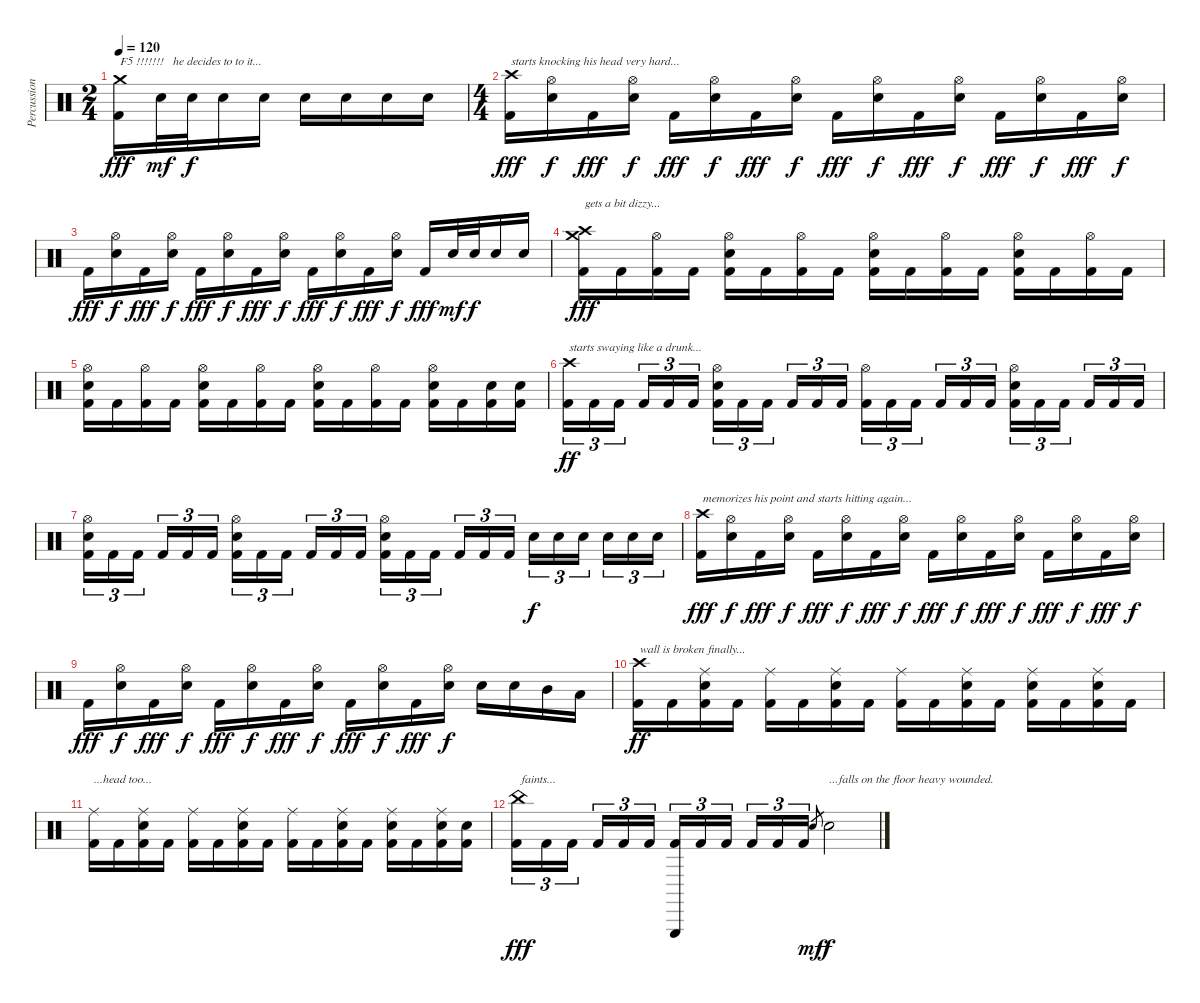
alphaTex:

\track ("Percussion" "Percussion") {instrument percussion}
\staff {score}
\articulation defaults
\ts (2 4)
\tempo 120
\clef neutral
\ks c
("Crash medium (hit)" "Kick (hit) 2").16{txt "F5 !!!!!!!   he decides to to it..." dy fff} "Electric Snare (hit)".32{dy mf} "Electric Snare (hit)".32{dy f} "Electric Snare (hit)".16 "Electric Snare (hit)".16 "Electric Snare (hit)".16 "Electric Snare (hit)".16 "Electric Snare (hit)".16 "Electric Snare (hit)".16 |
\ts (4 4)
("Crash high (hit)" "Kick (hit) 2").16{txt "starts knocking his head very hard..." dy fff} ("Hi-Hat (open)" "Electric Snare (hit)").16{dy f} "Kick (hit) 2".16{dy fff} ("Hi-Hat (open)" "Electric Snare (hit)").16{dy f} "Kick (hit) 2".16{dy fff} ("Hi-Hat (open)" "Electric Snare (hit)").16{dy f} "Kick (hit) 2".16{dy fff} ("Hi-Hat (open)" "Electric Snare (hit)").16{dy f} "Kick (hit) 2".16{dy fff} ("Hi-Hat (open)" "Electric Snare (hit)").16{dy f} "Kick (hit) 2".16{dy fff} ("Hi-Hat (open)" "Electric Snare (hit)").16{dy f} "Kick (hit) 2".16{dy fff} ("Hi-Hat (open)" "Electric Snare (hit)").16{dy f} "Kick (hit) 2".16{dy fff} ("Hi-Hat (open)" "Electric Snare (hit)").16{dy f} |
"Kick (hit) 2".16{dy fff} ("Hi-Hat (open)" "Electric Snare (hit)").16{dy f} "Kick (hit) 2".16{dy fff} ("Hi-Hat (open)" "Electric Snare (hit)").16{dy f} "Kick (hit) 2".16{dy fff} ("Hi-Hat (open)" "Electric Snare (hit)").16{dy f} "Kick (hit) 2".16{dy fff} ("Hi-Hat (open)" "Electric Snare (hit)").16{dy f} "Kick (hit) 2".16{dy fff} ("Hi-Hat (open)" "Electric Snare (hit)").16{dy f} "Kick (hit) 2".16{dy fff} ("Hi-Hat (open)" "Electric Snare (hit)").16{dy f} "Kick (hit) 2".16{dy fff} "Electric Snare (hit)".32{dy mf} "Electric Snare (hit)".32{dy f} "Electric Snare (hit)".16 "Electric Snare (hit)".16 |
("Crash medium (hit)" "Crash high (hit)" "Kick (hit) 2").16{txt "gets a bit dizzy..." dy fff} "Kick (hit) 2".16 ("Hi-Hat (open)" "Kick (hit) 2").16 "Kick (hit) 2".16 ("Hi-Hat (open)" "Electric Snare (hit)" "Kick (hit) 2").16 "Kick (hit) 2".16 ("Hi-Hat (open)" "Kick (hit) 2").16 "Kick (hit) 2".16 ("Hi-Hat (open)" "Electric Snare (hit)" "Kick (hit) 2").16 "Kick (hit) 2".16 ("Hi-Hat (open)" "Kick (hit) 2").16 "Kick (hit) 2".16 ("Hi-Hat (open)" "Electric Snare (hit)" "Kick (hit) 2").16 "Kick (hit) 2".16 ("Hi-Hat (open)" "Kick (hit) 2").16 "Kick (hit) 2".16 |
("Hi-Hat (open)" "Electric Snare (hit)" "Kick (hit) 2").16 "Kick (hit) 2".16 ("Hi-Hat (open)" "Kick (hit) 2").16 "Kick (hit) 2".16 ("Hi-Hat (open)" "Electric Snare (hit)" "Kick (hit) 2").16 "Kick (hit) 2".16 ("Hi-Hat (open)" "Kick (hit) 2").16 "Kick (hit) 2".16 ("Hi-Hat (open)" "Electric Snare (hit)" "Kick (hit) 2").16 "Kick (hit) 2".16 ("Hi-Hat (open)" "Kick (hit) 2").16 "Kick (hit) 2".16 ("Hi-Hat (open)" "Electric Snare (hit)" "Kick (hit) 2").16 "Kick (hit) 2".16 ("Electric Snare (hit)" "Kick (hit) 2").16 ("Electric Snare (hit)" "Kick (hit) 2").16 |
("Crash high (hit)" "Kick (hit) 2").16{tu (3 2) txt "starts swaying like a drunk..." dy ff} "Kick (hit) 2".16{tu (3 2)} "Kick (hit) 2".16{tu (3 2)} "Kick (hit) 2".16{tu (3 2)} "Kick (hit) 2".16{tu (3 2)} "Kick (hit) 2".16{tu (3 2)} ("Hi-Hat (open)" "Electric Snare (hit)" "Kick (hit) 2").16{tu (3 2)} "Kick (hit) 2".16{tu (3 2)} "Kick (hit) 2".16{tu (3 2)} "Kick (hit) 2".16{tu (3 2)} "Kick (hit) 2".16{tu (3 2)} "Kick (hit) 2".16{tu (3 2)} ("Hi-Hat (open)" "Kick (hit) 2").16{tu (3 2)} "Kick (hit) 2".16{tu (3 2)} "Kick (hit) 2".16{tu (3 2)} "Kick (hit) 2".16{tu (3 2)} "Kick (hit) 2".16{tu (3 2)} "Kick (hit) 2".16{tu (3 2)} ("Hi-Hat (open)" "Electric Snare (hit)" "Kick (hit) 2").16{tu (3 2)} "Kick (hit) 2".16{tu (3 2)} "Kick (hit) 2".16{tu (3 2)} "Kick (hit) 2".16{tu (3 2)} "Kick (hit) 2".16{tu (3 2)} "Kick (hit) 2".16{tu (3 2)} |
("Hi-Hat (open)" "Electric Snare (hit)" "Kick (hit) 2").16{tu (3 2)} "Kick (hit) 2".16{tu (3 2)} "Kick (hit) 2".16{tu (3 2)} "Kick (hit) 2".16{tu (3 2)} "Kick (hit) 2".16{tu (3 2)} "Kick (hit) 2".16{tu (3 2)} ("Hi-Hat (open)" "Electric Snare (hit)" "Kick (hit) 2").16{tu (3 2)} "Kick (hit) 2".16{tu (3 2)} "Kick (hit) 2".16{tu (3 2)} "Kick (hit) 2".16{tu (3 2)} "Kick (hit) 2".16{tu (3 2)} "Kick (hit) 2".16{tu (3 2)} ("Hi-Hat (open)" "Electric Snare (hit)" "Kick (hit) 2").16{tu (3 2)} "Kick (hit) 2".16{tu (3 2)} "Kick (hit) 2".16{tu (3 2)} "Kick (hit) 2".16{tu (3 2)} "Kick (hit) 2".16{tu (3 2)} "Kick (hit) 2".16{tu (3 2)} "Electric Snare (hit)".16{tu (3 2) dy f} "Electric Snare (hit)".16{tu (3 2)} "Electric Snare (hit)".16{tu (3 2)} "Electric Snare (hit)".16{tu (3 2)} "Electric Snare (hit)".16{tu (3 2)} "Electric Snare (hit)".16{tu (3 2)} |
("Crash high (hit)" "Kick (hit) 2").16{txt "memorizes his point and starts hitting again..." dy fff} ("Hi-Hat (open)" "Electric Snare (hit)").16{dy f} "Kick (hit) 2".16{dy fff} ("Hi-Hat (open)" "Electric Snare (hit)").16{dy f} "Kick (hit) 2".16{dy fff} ("Hi-Hat (open)" "Electric Snare (hit)").16{dy f} "Kick (hit) 2".16{dy fff} ("Hi-Hat (open)" "Electric Snare (hit)").16{dy f} "Kick (hit) 2".16{dy fff} ("Hi-Hat (open)" "Electric Snare (hit)").16{dy f} "Kick (hit) 2".16{dy fff} ("Hi-Hat (open)" "Electric Snare (hit)").16{dy f} "Kick (hit) 2".16{dy fff} ("Hi-Hat (open)" "Electric Snare (hit)").16{dy f} "Kick (hit) 2".16{dy fff} ("Hi-Hat (open)" "Electric Snare (hit)").16{dy f} |
"Kick (hit) 2".16{dy fff} ("Hi-Hat (open)" "Electric Snare (hit)").16{dy f} "Kick (hit) 2".16{dy fff} ("Hi-Hat (open)" "Electric Snare (hit)").16{dy f} "Kick (hit) 2".16{dy fff} ("Hi-Hat (open)" "Electric Snare (hit)").16{dy f} "Kick (hit) 2".16{dy fff} ("Hi-Hat (open)" "Electric Snare (hit)").16{dy f} "Kick (hit) 2".16{dy fff} ("Hi-Hat (open)" "Electric Snare (hit)").16{dy f} "Kick (hit) 2".16{dy fff} ("Hi-Hat (open)" "Electric Snare (hit)").16{dy f} "Electric Snare (hit)".16 "Electric Snare (hit)".16 "Mid Tom (hit)".16 "Low Tom (hit)".16 |
("Crash high (hit)" "Kick (hit) 2").16{txt "wall is broken finally..." dy ff} "Kick (hit) 2".16 ("Ride (middle)" "Electric Snare (hit)" "Kick (hit) 2").16 "Kick (hit) 2".16 ("Ride (middle)" "Kick (hit) 2").16 "Kick (hit) 2".16 ("Ride (middle)" "Electric Snare (hit)" "Kick (hit) 2").16 "Kick (hit) 2".16 ("Ride (middle)" "Kick (hit) 2").16 "Kick (hit) 2".16 ("Ride (middle)" "Electric Snare (hit)" "Kick (hit) 2").16 "Kick (hit) 2".16 ("Ride (middle)" "Electric Snare (hit)" "Kick (hit) 2").16 "Kick (hit) 2".16 ("Ride (middle)" "Electric Snare (hit)" "Kick (hit) 2").16 "Kick (hit) 2".16 |
("Ride (middle)" "Kick (hit) 2").16{txt "...head too..."} "Kick (hit) 2".16 ("Ride (middle)" "Electric Snare (hit)" "Kick (hit) 2").16 "Kick (hit) 2".16 ("Ride (middle)" "Kick (hit) 2").16 "Kick (hit) 2".16 ("Ride (middle)" "Electric Snare (hit)" "Kick (hit) 2").16 "Kick (hit) 2".16 ("Ride (middle)" "Kick (hit) 2").16 "Kick (hit) 2".16 ("Ride (middle)" "Electric Snare (hit)" "Kick (hit) 2").16 "Kick (hit) 2".16 ("Ride (middle)" "Electric Snare (hit)" "Kick (hit) 2").16 "Kick (hit) 2".16 ("Ride (middle)" "Electric Snare (hit)" "Kick (hit) 2").16 ("Electric Snare (hit)" "Kick (hit) 2").16 |
("China (hit)" "Kick (hit) 2").16{tu (3 2) txt "faints..." dy fff} "Kick (hit) 2".16{tu (3 2)} "Kick (hit) 2".16{tu (3 2)} "Kick (hit) 2".16{tu (3 2)} "Kick (hit) 2".16{tu (3 2)} "Kick (hit) 2".16{tu (3 2)} ("Triangle (hit)" "Kick (hit) 2").16{tu (3 2)} "Kick (hit) 2".16{tu (3 2)} "Kick (hit) 2".16{tu (3 2)} "Kick (hit) 2".16{tu (3 2)} "Kick (hit) 2".16{tu (3 2)} "Kick (hit) 2".16{tu (3 2)} "Electric Snare (hit)".8{gr dy mf} "Electric Snare (hit)".2{txt "...falls on the floor heavy wounded." dy f}
